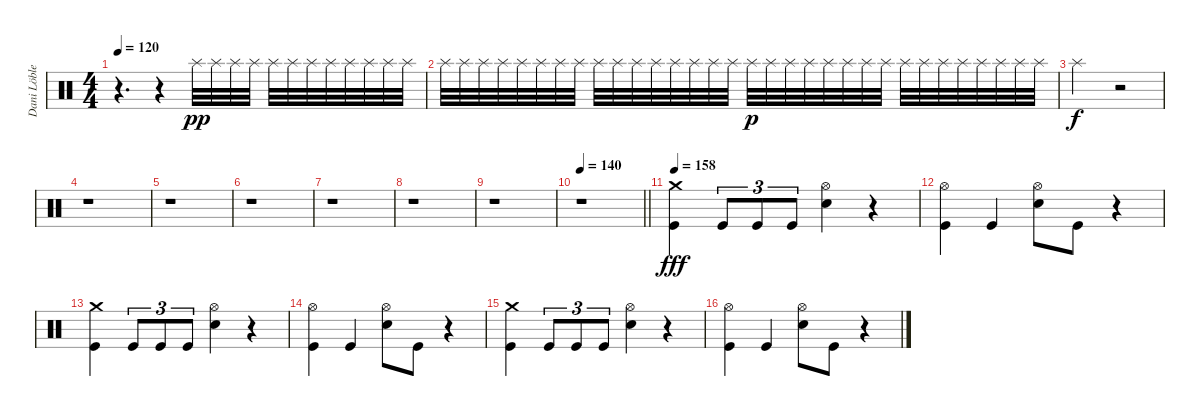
\track ("Dani Löble" "Dani Löble") {instrument percussion}
\staff {score}
\articulation defaults
\ts (4 4)
\tempo 120
\clef neutral
\ks c
r.4{d dy mp} r.4 "Splash (hit)".32{dy pp} "Splash (hit)".32 "Splash (hit)".32 "Splash (hit)".32 "Splash (hit)".32 "Splash (hit)".32 "Splash (hit)".32 "Splash (hit)".32 "Splash (hit)".32 "Splash (hit)".32 "Splash (hit)".32 "Splash (hit)".32 |
"Splash (hit)".32 "Splash (hit)".32 "Splash (hit)".32 "Splash (hit)".32 "Splash (hit)".32 "Splash (hit)".32 "Splash (hit)".32 "Splash (hit)".32 "Splash (hit)".32 "Splash (hit)".32 "Splash (hit)".32 "Splash (hit)".32 "Splash (hit)".32 "Splash (hit)".32 "Splash (hit)".32 "Splash (hit)".32 "Splash (hit)".32{dy p} "Splash (hit)".32 "Splash (hit)".32 "Splash (hit)".32 "Splash (hit)".32 "Splash (hit)".32 "Splash (hit)".32 "Splash (hit)".32 "Splash (hit)".32 "Splash (hit)".32 "Splash (hit)".32 "Splash (hit)".32 "Splash (hit)".32 "Splash (hit)".32 "Splash (hit)".32 "Splash (hit)".32 |
"Splash (hit)".2{dy f} r.2 |
r.1 |
r.1 |
r.1 |
r.1 |
r.1 |
r.1 |
\tempo 140
\barLineRight lightlight
r.1 |
\section ("" "")
\tempo 158
("Crash medium (hit)" "Kick (hit)").4{dy fff} "Kick (hit)".8{tu (3 2)} "Kick (hit)".8{tu (3 2)} "Kick (hit)".8{tu (3 2)} ("Hi-Hat (open)" "Electric Snare (hit)").4 r.4 |
("Hi-Hat (open)" "Kick (hit)").4 "Kick (hit)".4 ("Hi-Hat (open)" "Electric Snare (hit)").8 "Kick (hit)".8 r.4 |
("Crash medium (hit)" "Kick (hit)").4 "Kick (hit)".8{tu (3 2)} "Kick (hit)".8{tu (3 2)} "Kick (hit)".8{tu (3 2)} ("Hi-Hat (open)" "Electric Snare (hit)").4 r.4 |
("Hi-Hat (open)" "Kick (hit)").4 "Kick (hit)".4 ("Hi-Hat (open)" "Electric Snare (hit)").8 "Kick (hit)".8 r.4 |
("Crash medium (hit)" "Kick (hit)").4 "Kick (hit)".8{tu (3 2)} "Kick (hit)".8{tu (3 2)} "Kick (hit)".8{tu (3 2)} ("Hi-Hat (open)" "Electric Snare (hit)").4 r.4 |
("Hi-Hat (open)" "Kick (hit)").4 "Kick (hit)".4 ("Hi-Hat (open)" "Electric Snare (hit)").8 "Kick (hit)".8 r.4
